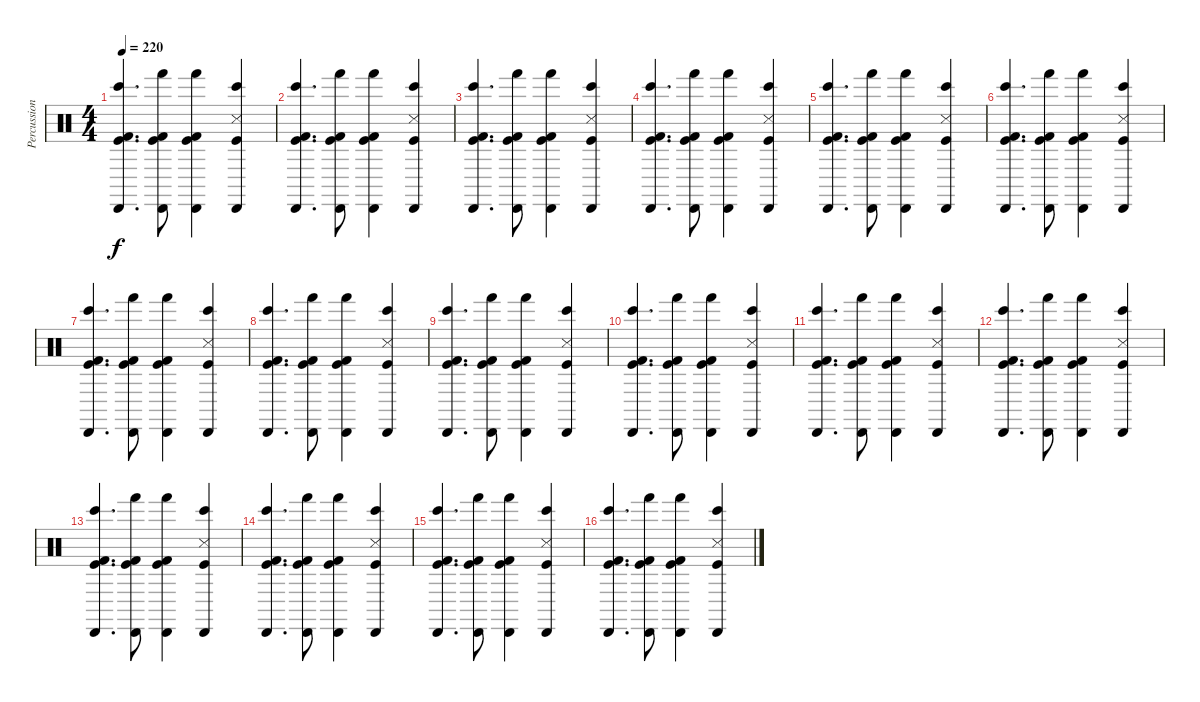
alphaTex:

\track ("Percussions" "Percussion") {instrument percussion}
\staff {score}
\articulation defaults
\ts (4 4)
\tempo 220
\clef neutral
\ks c
("Kick (hit)" "Kick (hit) 2" "Bongo High (hit)" "Cabasa (hit)").4{d dy f} ("Kick (hit)" "Kick (hit) 2" "Hand (hit)" "Cabasa (hit)").8 ("Kick (hit)" "Kick (hit) 2" "Hand (hit)" "Cabasa (hit)").4 ("Kick (hit)" "Snare (side stick) 3" "Bongo High (hit)" "Cabasa (hit)").4 |
("Kick (hit)" "Kick (hit) 2" "Bongo High (hit)" "Cabasa (hit)").4{d} ("Kick (hit)" "Kick (hit) 2" "Hand (hit)" "Cabasa (hit)").8 ("Kick (hit)" "Kick (hit) 2" "Hand (hit)" "Cabasa (hit)").4 ("Kick (hit)" "Snare (side stick) 3" "Bongo High (hit)" "Cabasa (hit)").4 |
("Kick (hit)" "Kick (hit) 2" "Bongo High (hit)" "Cabasa (hit)").4{d} ("Kick (hit)" "Kick (hit) 2" "Hand (hit)" "Cabasa (hit)").8 ("Kick (hit)" "Kick (hit) 2" "Hand (hit)" "Cabasa (hit)").4 ("Kick (hit)" "Snare (side stick) 3" "Bongo High (hit)" "Cabasa (hit)").4 |
("Kick (hit)" "Kick (hit) 2" "Bongo High (hit)" "Cabasa (hit)").4{d} ("Kick (hit)" "Kick (hit) 2" "Hand (hit)" "Cabasa (hit)").8 ("Kick (hit)" "Kick (hit) 2" "Hand (hit)" "Cabasa (hit)").4 ("Kick (hit)" "Snare (side stick) 3" "Bongo High (hit)" "Cabasa (hit)").4 |
("Kick (hit)" "Kick (hit) 2" "Bongo High (hit)" "Cabasa (hit)").4{d} ("Kick (hit)" "Kick (hit) 2" "Hand (hit)" "Cabasa (hit)").8 ("Kick (hit)" "Kick (hit) 2" "Hand (hit)" "Cabasa (hit)").4 ("Kick (hit)" "Snare (side stick) 3" "Bongo High (hit)" "Cabasa (hit)").4 |
("Kick (hit)" "Kick (hit) 2" "Bongo High (hit)" "Cabasa (hit)").4{d} ("Kick (hit)" "Kick (hit) 2" "Hand (hit)" "Cabasa (hit)").8 ("Kick (hit)" "Kick (hit) 2" "Hand (hit)" "Cabasa (hit)").4 ("Kick (hit)" "Snare (side stick) 3" "Bongo High (hit)" "Cabasa (hit)").4 |
("Kick (hit)" "Kick (hit) 2" "Bongo High (hit)" "Cabasa (hit)").4{d} ("Kick (hit)" "Kick (hit) 2" "Hand (hit)" "Cabasa (hit)").8 ("Kick (hit)" "Kick (hit) 2" "Hand (hit)" "Cabasa (hit)").4 ("Kick (hit)" "Snare (side stick) 3" "Bongo High (hit)" "Cabasa (hit)").4 |
("Kick (hit)" "Kick (hit) 2" "Bongo High (hit)" "Cabasa (hit)").4{d} ("Kick (hit)" "Kick (hit) 2" "Hand (hit)" "Cabasa (hit)").8 ("Kick (hit)" "Kick (hit) 2" "Hand (hit)" "Cabasa (hit)").4 ("Kick (hit)" "Snare (side stick) 3" "Bongo High (hit)" "Cabasa (hit)").4 |
("Kick (hit)" "Kick (hit) 2" "Bongo High (hit)" "Cabasa (hit)").4{d} ("Kick (hit)" "Kick (hit) 2" "Hand (hit)" "Cabasa (hit)").8 ("Kick (hit)" "Kick (hit) 2" "Hand (hit)" "Cabasa (hit)").4 ("Kick (hit)" "Snare (side stick) 3" "Bongo High (hit)" "Cabasa (hit)").4 |
("Kick (hit)" "Kick (hit) 2" "Bongo High (hit)" "Cabasa (hit)").4{d} ("Kick (hit)" "Kick (hit) 2" "Hand (hit)" "Cabasa (hit)").8 ("Kick (hit)" "Kick (hit) 2" "Hand (hit)" "Cabasa (hit)").4 ("Kick (hit)" "Snare (side stick) 3" "Bongo High (hit)" "Cabasa (hit)").4 |
("Kick (hit)" "Kick (hit) 2" "Bongo High (hit)" "Cabasa (hit)").4{d} ("Kick (hit)" "Kick (hit) 2" "Hand (hit)" "Cabasa (hit)").8 ("Kick (hit)" "Kick (hit) 2" "Hand (hit)" "Cabasa (hit)").4 ("Kick (hit)" "Snare (side stick) 3" "Bongo High (hit)" "Cabasa (hit)").4 |
("Kick (hit)" "Kick (hit) 2" "Bongo High (hit)" "Cabasa (hit)").4{d} ("Kick (hit)" "Kick (hit) 2" "Hand (hit)" "Cabasa (hit)").8 ("Kick (hit)" "Kick (hit) 2" "Hand (hit)" "Cabasa (hit)").4 ("Kick (hit)" "Snare (side stick) 3" "Bongo High (hit)" "Cabasa (hit)").4 |
("Kick (hit)" "Kick (hit) 2" "Bongo High (hit)" "Cabasa (hit)").4{d} ("Kick (hit)" "Kick (hit) 2" "Hand (hit)" "Cabasa (hit)").8 ("Kick (hit)" "Kick (hit) 2" "Hand (hit)" "Cabasa (hit)").4 ("Kick (hit)" "Snare (side stick) 3" "Bongo High (hit)" "Cabasa (hit)").4 |
("Kick (hit)" "Kick (hit) 2" "Bongo High (hit)" "Cabasa (hit)").4{d} ("Kick (hit)" "Kick (hit) 2" "Hand (hit)" "Cabasa (hit)").8 ("Kick (hit)" "Kick (hit) 2" "Hand (hit)" "Cabasa (hit)").4 ("Kick (hit)" "Snare (side stick) 3" "Bongo High (hit)" "Cabasa (hit)").4 |
("Kick (hit)" "Kick (hit) 2" "Bongo High (hit)" "Cabasa (hit)").4{d} ("Kick (hit)" "Kick (hit) 2" "Hand (hit)" "Cabasa (hit)").8 ("Kick (hit)" "Kick (hit) 2" "Hand (hit)" "Cabasa (hit)").4 ("Kick (hit)" "Snare (side stick) 3" "Bongo High (hit)" "Cabasa (hit)").4 |
("Kick (hit)" "Kick (hit) 2" "Bongo High (hit)" "Cabasa (hit)").4{d} ("Kick (hit)" "Kick (hit) 2" "Hand (hit)" "Cabasa (hit)").8 ("Kick (hit)" "Kick (hit) 2" "Hand (hit)" "Cabasa (hit)").4 ("Kick (hit)" "Snare (side stick) 3" "Bongo High (hit)" "Cabasa (hit)").4
